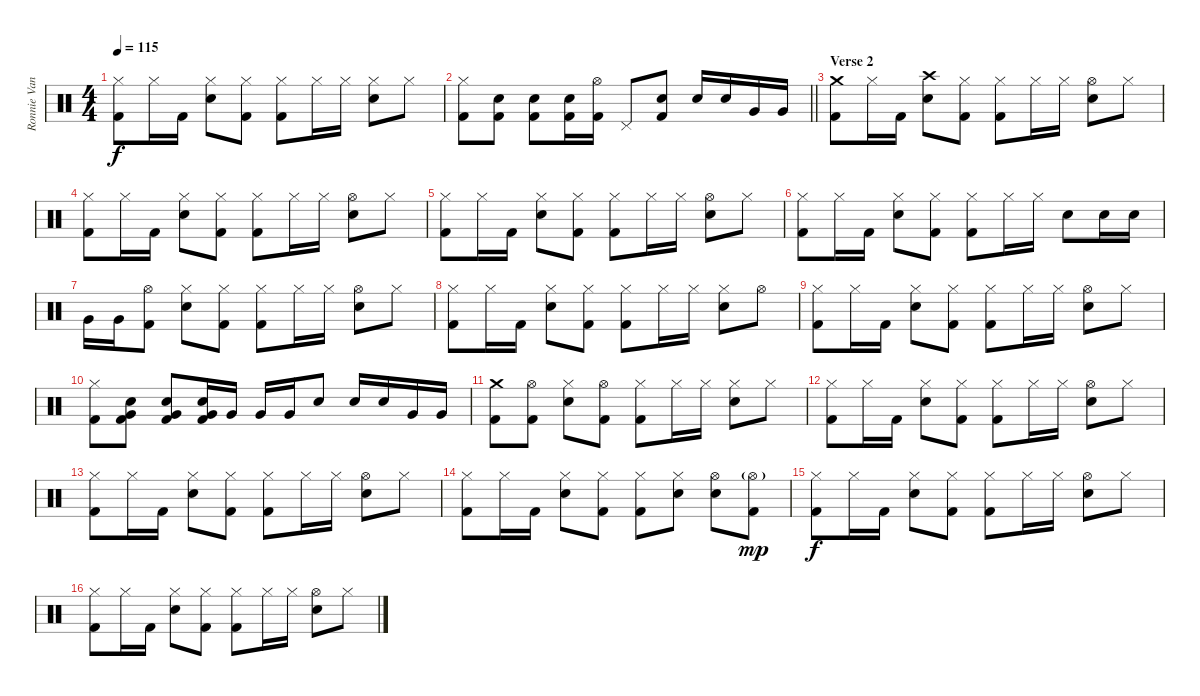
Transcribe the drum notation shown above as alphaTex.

\track ("Ronnie Vannucci Jr. (Drums)" "Ronnie Van") {instrument percussion}
\staff {score}
\articulation defaults
\ts (4 4)
\tempo 115
\clef neutral
\ks c
("Hi-Hat (closed)" "Kick (hit) 2").8{dy f} "Hi-Hat (closed)".16 "Kick (hit) 2".16 ("Hi-Hat (closed)" "Electric Snare (hit)").8 ("Hi-Hat (closed)" "Kick (hit) 2").8 ("Hi-Hat (closed)" "Kick (hit) 2").8 "Hi-Hat (closed)".16 "Hi-Hat (closed)".16 ("Hi-Hat (closed)" "Electric Snare (hit)").8 "Hi-Hat (closed)".8 |
\barLineRight lightlight
("Hi-Hat (closed)" "Kick (hit) 2").8 ("Electric Snare (hit)" "Kick (hit) 2").8 ("Electric Snare (hit)" "Kick (hit) 2").8 ("Electric Snare (hit)" "Kick (hit) 2").16 ("Hi-Hat (open)" "Kick (hit) 2").16 "Pedal Hi-Hat (hit)".8 ("Electric Snare (hit)" "Kick (hit) 2").8 "Electric Snare (hit)".16 "Electric Snare (hit)".16 "Very Low Tom (hit)".16 "Very Low Tom (hit)".16 |
\section ("" "Verse 2")
("Crash medium (hit)" "Kick (hit) 2").8 "Hi-Hat (closed)".16 "Kick (hit) 2".16 ("Crash high (hit)" "Electric Snare (hit)").8 ("Hi-Hat (closed)" "Kick (hit) 2").8 ("Hi-Hat (closed)" "Kick (hit) 2").8 "Hi-Hat (closed)".16 "Hi-Hat (closed)".16 ("Hi-Hat (open)" "Electric Snare (hit)").8 "Hi-Hat (closed)".8 |
("Hi-Hat (closed)" "Kick (hit) 2").8 "Hi-Hat (closed)".16 "Kick (hit) 2".16 ("Hi-Hat (closed)" "Electric Snare (hit)").8 ("Hi-Hat (closed)" "Kick (hit) 2").8 ("Hi-Hat (closed)" "Kick (hit) 2").8 "Hi-Hat (closed)".16 "Hi-Hat (closed)".16 ("Hi-Hat (open)" "Electric Snare (hit)").8 "Hi-Hat (closed)".8 |
("Hi-Hat (closed)" "Kick (hit) 2").8 "Hi-Hat (closed)".16 "Kick (hit) 2".16 ("Hi-Hat (closed)" "Electric Snare (hit)").8 ("Hi-Hat (closed)" "Kick (hit) 2").8 ("Hi-Hat (closed)" "Kick (hit) 2").8 "Hi-Hat (closed)".16 "Hi-Hat (closed)".16 ("Hi-Hat (open)" "Electric Snare (hit)").8 "Hi-Hat (closed)".8 |
("Hi-Hat (closed)" "Kick (hit) 2").8 "Hi-Hat (closed)".16 "Kick (hit) 2".16 ("Hi-Hat (closed)" "Electric Snare (hit)").8 ("Hi-Hat (closed)" "Kick (hit) 2").8 ("Hi-Hat (closed)" "Kick (hit) 2").8 "Hi-Hat (closed)".16 "Hi-Hat (closed)".16 "Electric Snare (hit)".8 "Electric Snare (hit)".16 "Electric Snare (hit)".16 |
"Very Low Tom (hit)".16 "Very Low Tom (hit)".16 ("Hi-Hat (open)" "Kick (hit) 2").8 ("Hi-Hat (closed)" "Electric Snare (hit)").8 ("Hi-Hat (closed)" "Kick (hit) 2").8 ("Hi-Hat (closed)" "Kick (hit) 2").8 "Hi-Hat (closed)".16 "Hi-Hat (closed)".16 ("Hi-Hat (open)" "Electric Snare (hit)").8 "Hi-Hat (closed)".8 |
("Hi-Hat (closed)" "Kick (hit) 2").8 "Hi-Hat (closed)".16 "Kick (hit) 2".16 ("Hi-Hat (closed)" "Electric Snare (hit)").8 ("Hi-Hat (closed)" "Kick (hit) 2").8 ("Hi-Hat (closed)" "Kick (hit) 2").8 "Hi-Hat (closed)".16 "Hi-Hat (closed)".16 ("Hi-Hat (closed)" "Electric Snare (hit)").8 "Hi-Hat (open)".8 |
("Hi-Hat (closed)" "Kick (hit) 2").8 "Hi-Hat (closed)".16 "Kick (hit) 2".16 ("Hi-Hat (closed)" "Electric Snare (hit)").8 ("Hi-Hat (closed)" "Kick (hit) 2").8 ("Hi-Hat (closed)" "Kick (hit) 2").8 "Hi-Hat (closed)".16 "Hi-Hat (closed)".16 ("Hi-Hat (open)" "Electric Snare (hit)").8 "Hi-Hat (closed)".8 |
("Hi-Hat (closed)" "Kick (hit) 2").8 ("Very Low Tom (hit)" "Electric Snare (hit)" "Kick (hit) 2").8 ("Very Low Tom (hit)" "Electric Snare (hit)" "Kick (hit) 2").8 ("Very Low Tom (hit)" "Electric Snare (hit)" "Kick (hit) 2").16 "Very Low Tom (hit)".16 "Very Low Tom (hit)".16 "Very Low Tom (hit)".16 "Electric Snare (hit)".8 "Electric Snare (hit)".16 "Electric Snare (hit)".16 "Very Low Tom (hit)".16 "Very Low Tom (hit)".16 |
("Crash medium (hit)" "Kick (hit) 2").8 ("Hi-Hat (open)" "Kick (hit) 2").8 ("Hi-Hat (closed)" "Electric Snare (hit)").8 ("Hi-Hat (open)" "Kick (hit) 2").8 ("Hi-Hat (closed)" "Kick (hit) 2").8 "Hi-Hat (closed)".16 "Hi-Hat (closed)".16 ("Hi-Hat (closed)" "Electric Snare (hit)").8 "Hi-Hat (closed)".8 |
("Hi-Hat (closed)" "Kick (hit) 2").8 "Hi-Hat (closed)".16 "Kick (hit) 2".16 ("Hi-Hat (closed)" "Electric Snare (hit)").8 ("Hi-Hat (closed)" "Kick (hit) 2").8 ("Hi-Hat (closed)" "Kick (hit) 2").8 "Hi-Hat (closed)".16 "Hi-Hat (closed)".16 ("Hi-Hat (open)" "Electric Snare (hit)").8 "Hi-Hat (closed)".8 |
("Hi-Hat (closed)" "Kick (hit) 2").8 "Hi-Hat (closed)".16 "Kick (hit) 2".16 ("Hi-Hat (closed)" "Electric Snare (hit)").8 ("Hi-Hat (closed)" "Kick (hit) 2").8 ("Hi-Hat (closed)" "Kick (hit) 2").8 "Hi-Hat (closed)".16 "Hi-Hat (closed)".16 ("Hi-Hat (open)" "Electric Snare (hit)").8 "Hi-Hat (closed)".8 |
("Hi-Hat (closed)" "Kick (hit) 2").8 "Hi-Hat (closed)".16 "Kick (hit) 2".16 ("Hi-Hat (closed)" "Electric Snare (hit)").8 ("Hi-Hat (closed)" "Kick (hit) 2").8 ("Hi-Hat (closed)" "Kick (hit) 2").8 ("Hi-Hat (closed)" "Electric Snare (hit)").8 ("Hi-Hat (open)" "Electric Snare (hit)").8 ("Hi-Hat (open)"{g} "Kick (hit) 2").8{dy mp} |
("Hi-Hat (closed)" "Kick (hit) 2").8{dy f} "Hi-Hat (closed)".16 "Kick (hit) 2".16 ("Hi-Hat (closed)" "Electric Snare (hit)").8 ("Hi-Hat (closed)" "Kick (hit) 2").8 ("Hi-Hat (closed)" "Kick (hit) 2").8 "Hi-Hat (closed)".16 "Hi-Hat (closed)".16 ("Hi-Hat (open)" "Electric Snare (hit)").8 "Hi-Hat (closed)".8 |
("Hi-Hat (closed)" "Kick (hit) 2").8 "Hi-Hat (closed)".16 "Kick (hit) 2".16 ("Hi-Hat (closed)" "Electric Snare (hit)").8 ("Hi-Hat (closed)" "Kick (hit) 2").8 ("Hi-Hat (closed)" "Kick (hit) 2").8 "Hi-Hat (closed)".16 "Hi-Hat (closed)".16 ("Hi-Hat (open)" "Electric Snare (hit)").8 "Hi-Hat (closed)".8
